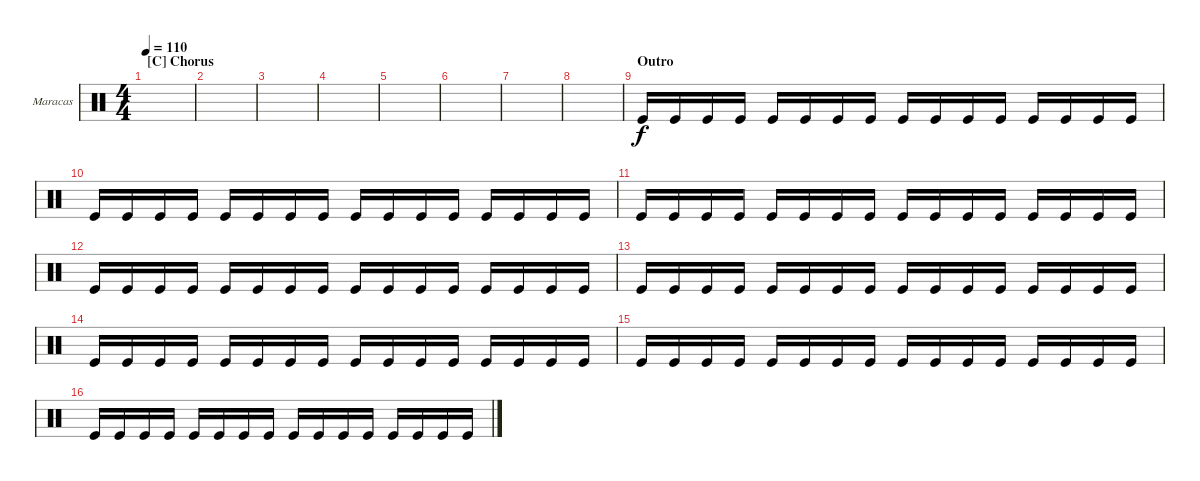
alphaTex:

\defaultSystemsLayout 4
\bracketExtendMode groupsimilarinstruments
\firstSystemTrackNameOrientation horizontal
\otherSystemsTrackNameOrientation horizontal
\track ("Maracas" "Maracas") {instrument percussion}
\staff {score}
\articulation defaults
\ts (4 4)
\section ("C" "Chorus ")
\tempo 110
\clef neutral
\ks c
|
|
|
|
|
|
|
|
\section ("" "Outro")
"Kick (hit)".16 "Kick (hit)".16 "Kick (hit)".16 "Kick (hit)".16 "Kick (hit)".16 "Kick (hit)".16 "Kick (hit)".16 "Kick (hit)".16 "Kick (hit)".16 "Kick (hit)".16 "Kick (hit)".16 "Kick (hit)".16 "Kick (hit)".16 "Kick (hit)".16 "Kick (hit)".16 "Kick (hit)".16 |
"Kick (hit)".16 "Kick (hit)".16 "Kick (hit)".16 "Kick (hit)".16 "Kick (hit)".16 "Kick (hit)".16 "Kick (hit)".16 "Kick (hit)".16 "Kick (hit)".16 "Kick (hit)".16 "Kick (hit)".16 "Kick (hit)".16 "Kick (hit)".16 "Kick (hit)".16 "Kick (hit)".16 "Kick (hit)".16 |
"Kick (hit)".16 "Kick (hit)".16 "Kick (hit)".16 "Kick (hit)".16 "Kick (hit)".16 "Kick (hit)".16 "Kick (hit)".16 "Kick (hit)".16 "Kick (hit)".16 "Kick (hit)".16 "Kick (hit)".16 "Kick (hit)".16 "Kick (hit)".16 "Kick (hit)".16 "Kick (hit)".16 "Kick (hit)".16 |
"Kick (hit)".16 "Kick (hit)".16 "Kick (hit)".16 "Kick (hit)".16 "Kick (hit)".16 "Kick (hit)".16 "Kick (hit)".16 "Kick (hit)".16 "Kick (hit)".16 "Kick (hit)".16 "Kick (hit)".16 "Kick (hit)".16 "Kick (hit)".16 "Kick (hit)".16 "Kick (hit)".16 "Kick (hit)".16 |
"Kick (hit)".16 "Kick (hit)".16 "Kick (hit)".16 "Kick (hit)".16 "Kick (hit)".16 "Kick (hit)".16 "Kick (hit)".16 "Kick (hit)".16 "Kick (hit)".16 "Kick (hit)".16 "Kick (hit)".16 "Kick (hit)".16 "Kick (hit)".16 "Kick (hit)".16 "Kick (hit)".16 "Kick (hit)".16 |
"Kick (hit)".16 "Kick (hit)".16 "Kick (hit)".16 "Kick (hit)".16 "Kick (hit)".16 "Kick (hit)".16 "Kick (hit)".16 "Kick (hit)".16 "Kick (hit)".16 "Kick (hit)".16 "Kick (hit)".16 "Kick (hit)".16 "Kick (hit)".16 "Kick (hit)".16 "Kick (hit)".16 "Kick (hit)".16 |
"Kick (hit)".16 "Kick (hit)".16 "Kick (hit)".16 "Kick (hit)".16 "Kick (hit)".16 "Kick (hit)".16 "Kick (hit)".16 "Kick (hit)".16 "Kick (hit)".16 "Kick (hit)".16 "Kick (hit)".16 "Kick (hit)".16 "Kick (hit)".16 "Kick (hit)".16 "Kick (hit)".16 "Kick (hit)".16 |
"Kick (hit)".16 "Kick (hit)".16 "Kick (hit)".16 "Kick (hit)".16 "Kick (hit)".16 "Kick (hit)".16 "Kick (hit)".16 "Kick (hit)".16 "Kick (hit)".16 "Kick (hit)".16 "Kick (hit)".16 "Kick (hit)".16 "Kick (hit)".16 "Kick (hit)".16 "Kick (hit)".16 "Kick (hit)".16
